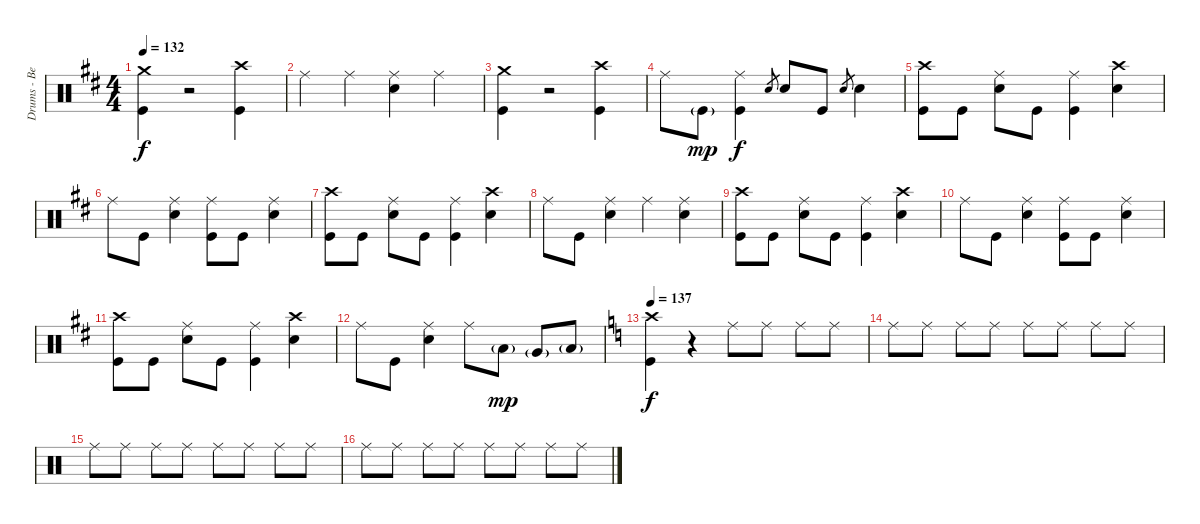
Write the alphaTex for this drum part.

\track ("Drums - Ben Johnston" "Drums - Be") {instrument percussion}
\staff {score}
\articulation defaults
\ts (4 4)
\tempo 132
\clef neutral
\ks d
("Crash medium (hit)" "Kick (hit)").4{dy f} r.2 ("Crash high (hit)" "Kick (hit)").4 |
"Ride (middle)".4 "Ride (middle)".4 ("Ride (middle)" "Snare (hit) 2").4 "Ride (middle)".4 |
("Crash medium (hit)" "Kick (hit)").4 r.2 ("Crash high (hit)" "Kick (hit)").4 |
"Ride (middle)".8 "Kick (hit)"{g}.8{dy mp} ("Ride (middle)" "Kick (hit)").4{dy f} "Snare (hit) 2".8{gr} "Snare (hit) 2".8 "Kick (hit)".8 "Snare (hit) 2".8{gr} "Snare (hit) 2".4 |
("Crash high (hit)" "Kick (hit)").8 "Kick (hit)".8 ("Ride (middle)" "Snare (hit) 2").8 "Kick (hit)".8 ("Ride (middle)" "Kick (hit)").4 ("Crash high (hit)" "Snare (hit) 2").4 |
"Ride (middle)".8 "Kick (hit)".8 ("Ride (middle)" "Snare (hit) 2").4 ("Ride (middle)" "Kick (hit)").8 "Kick (hit)".8 ("Ride (middle)" "Snare (hit) 2").4 |
("Crash high (hit)" "Kick (hit)").8 "Kick (hit)".8 ("Ride (middle)" "Snare (hit) 2").8 "Kick (hit)".8 ("Ride (middle)" "Kick (hit)").4 ("Crash high (hit)" "Snare (hit) 2").4 |
"Ride (middle)".8 "Kick (hit)".8 ("Ride (middle)" "Snare (hit) 2").4 "Ride (middle)".4 ("Ride (middle)" "Snare (hit) 2").4 |
("Crash high (hit)" "Kick (hit)").8 "Kick (hit)".8 ("Ride (middle)" "Snare (hit) 2").8 "Kick (hit)".8 ("Ride (middle)" "Kick (hit)").4 ("Crash high (hit)" "Snare (hit) 2").4 |
"Ride (middle)".8 "Kick (hit)".8 ("Ride (middle)" "Snare (hit) 2").4 ("Ride (middle)" "Kick (hit)").8 "Kick (hit)".8 ("Ride (middle)" "Snare (hit) 2").4 |
("Crash high (hit)" "Kick (hit)").8 "Kick (hit)".8 ("Ride (middle)" "Snare (hit) 2").8 "Kick (hit)".8 ("Ride (middle)" "Kick (hit)").4 ("Crash high (hit)" "Snare (hit) 2").4 |
"Ride (middle)".8 "Kick (hit)".8 ("Ride (middle)" "Snare (hit) 2").4 "Ride (middle)".8 "Low Tom (hit)"{g}.8{dy mp} "Very Low Tom (hit)"{g}.8 "Low Floor Tom (hit)"{g}.8 |
\tempo 137
\ks c
("Crash high (hit)" "Kick (hit)").4{dy f} r.4{volume 9} "Ride (middle)".8 "Ride (middle)".8 "Ride (middle)".8 "Ride (middle)".8 |
"Ride (middle)".8 "Ride (middle)".8 "Ride (middle)".8 "Ride (middle)".8 "Ride (middle)".8 "Ride (middle)".8 "Ride (middle)".8 "Ride (middle)".8 |
"Ride (middle)".8 "Ride (middle)".8 "Ride (middle)".8 "Ride (middle)".8 "Ride (middle)".8 "Ride (middle)".8 "Ride (middle)".8 "Ride (middle)".8 |
"Ride (middle)".8 "Ride (middle)".8 "Ride (middle)".8 "Ride (middle)".8 "Ride (middle)".8 "Ride (middle)".8 "Ride (middle)".8 "Ride (middle)".8
